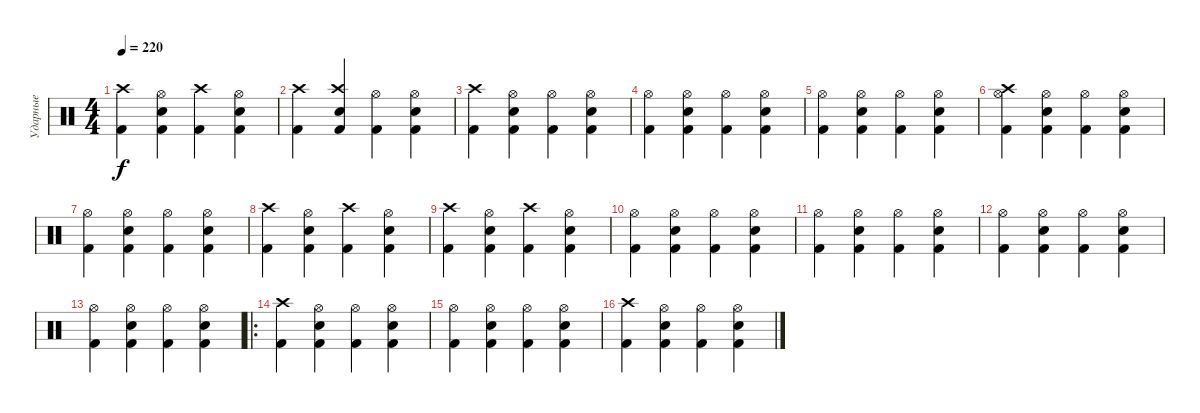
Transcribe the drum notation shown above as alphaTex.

\track ("Ударные" "Ударные") {instrument percussion}
\staff
\articulation defaults
\ts (4 4)
\tempo 220
\clef neutral
\ks c
("Kick (hit) 2" "Crash high (hit)").4{dy f} ("Kick (hit) 2" "Snare (hit) 2" "Hi-Hat (open)").4 ("Kick (hit) 2" "Crash high (hit)").4 ("Kick (hit) 2" "Snare (hit) 2" "Hi-Hat (open)").4 |
("Kick (hit) 2" "Crash high (hit)").4 ("Kick (hit) 2" "Snare (hit) 2" "Crash high (hit)").4 ("Kick (hit) 2" "Hi-Hat (open)").4 ("Kick (hit) 2" "Snare (hit) 2" "Hi-Hat (open)").4 |
("Kick (hit) 2" "Crash high (hit)").4 ("Kick (hit) 2" "Snare (hit) 2" "Hi-Hat (open)").4 ("Kick (hit) 2" "Hi-Hat (open)").4 ("Kick (hit) 2" "Snare (hit) 2" "Hi-Hat (open)").4 |
("Kick (hit) 2" "Hi-Hat (open)").4 ("Kick (hit) 2" "Snare (hit) 2" "Hi-Hat (open)").4 ("Kick (hit) 2" "Hi-Hat (open)").4 ("Kick (hit) 2" "Snare (hit) 2" "Hi-Hat (open)").4 |
("Kick (hit) 2" "Hi-Hat (open)").4 ("Kick (hit) 2" "Snare (hit) 2" "Hi-Hat (open)").4 ("Kick (hit) 2" "Hi-Hat (open)").4 ("Kick (hit) 2" "Snare (hit) 2" "Hi-Hat (open)").4 |
("Kick (hit) 2" "Hi-Hat (open)" "Crash high (hit)").4 ("Kick (hit) 2" "Snare (hit) 2" "Hi-Hat (open)").4 ("Kick (hit) 2" "Hi-Hat (open)").4 ("Kick (hit) 2" "Snare (hit) 2" "Hi-Hat (open)").4 |
("Kick (hit) 2" "Hi-Hat (open)").4 ("Kick (hit) 2" "Snare (hit) 2" "Hi-Hat (open)").4 ("Kick (hit) 2" "Hi-Hat (open)").4 ("Kick (hit) 2" "Snare (hit) 2" "Hi-Hat (open)").4 |
("Kick (hit) 2" "Crash high (hit)").4 ("Kick (hit) 2" "Snare (hit) 2" "Hi-Hat (open)").4 ("Kick (hit) 2" "Crash high (hit)").4 ("Kick (hit) 2" "Snare (hit) 2" "Hi-Hat (open)").4 |
("Kick (hit) 2" "Crash high (hit)").4 ("Kick (hit) 2" "Snare (hit) 2" "Hi-Hat (open)").4 ("Kick (hit) 2" "Crash high (hit)").4 ("Kick (hit) 2" "Snare (hit) 2" "Hi-Hat (open)").4 |
("Kick (hit) 2" "Hi-Hat (open)").4 ("Kick (hit) 2" "Snare (hit) 2" "Hi-Hat (open)").4 ("Kick (hit) 2" "Hi-Hat (open)").4 ("Kick (hit) 2" "Snare (hit) 2" "Hi-Hat (open)").4 |
("Kick (hit) 2" "Hi-Hat (open)").4 ("Kick (hit) 2" "Snare (hit) 2" "Hi-Hat (open)").4 ("Kick (hit) 2" "Hi-Hat (open)").4 ("Kick (hit) 2" "Snare (hit) 2" "Hi-Hat (open)").4 |
("Kick (hit) 2" "Hi-Hat (open)").4 ("Kick (hit) 2" "Snare (hit) 2" "Hi-Hat (open)").4 ("Kick (hit) 2" "Hi-Hat (open)").4 ("Kick (hit) 2" "Snare (hit) 2" "Hi-Hat (open)").4 |
("Kick (hit) 2" "Hi-Hat (open)").4 ("Kick (hit) 2" "Snare (hit) 2" "Hi-Hat (open)").4 ("Kick (hit) 2" "Hi-Hat (open)").4 ("Kick (hit) 2" "Snare (hit) 2" "Hi-Hat (open)").4 |
\ro
("Kick (hit) 2" "Crash high (hit)").4 ("Kick (hit) 2" "Snare (hit) 2" "Hi-Hat (open)").4 ("Kick (hit) 2" "Hi-Hat (open)").4 ("Kick (hit) 2" "Snare (hit) 2" "Hi-Hat (open)").4 |
("Kick (hit) 2" "Hi-Hat (open)").4 ("Kick (hit) 2" "Snare (hit) 2" "Hi-Hat (open)").4 ("Kick (hit) 2" "Hi-Hat (open)").4 ("Kick (hit) 2" "Snare (hit) 2" "Hi-Hat (open)").4 |
("Kick (hit) 2" "Crash high (hit)").4 ("Kick (hit) 2" "Snare (hit) 2" "Hi-Hat (open)").4 ("Kick (hit) 2" "Hi-Hat (open)").4 ("Kick (hit) 2" "Snare (hit) 2" "Hi-Hat (open)").4
